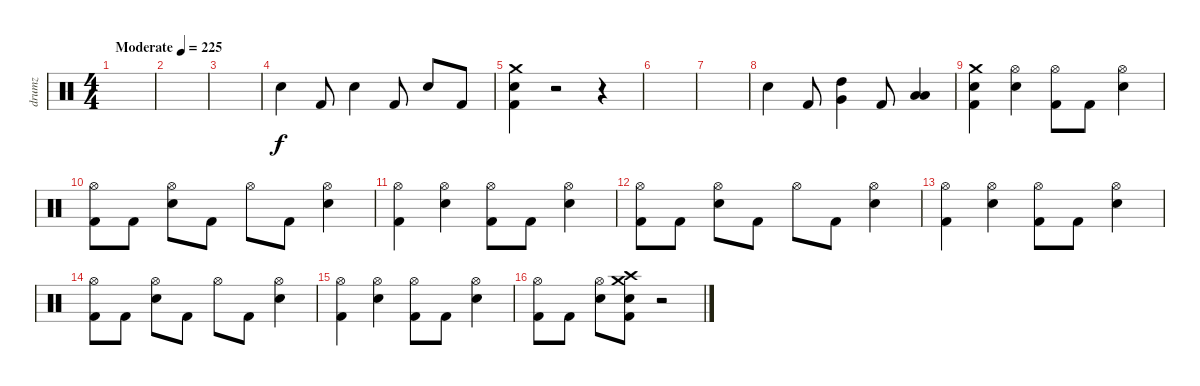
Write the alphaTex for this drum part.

\track ("drumz" "drumz") {instrument percussion}
\staff {score}
\articulation defaults
\ts (4 4)
\tempo (225 "Moderate")
\clef neutral
\ks c
|
|
|
"Electric Snare (hit)".4 "Kick (hit) 2".8 "Electric Snare (hit)".4 "Kick (hit) 2".8 "Electric Snare (hit)".8 "Kick (hit) 2".8 |
("Crash medium (hit)" "Electric Snare (hit)" "Kick (hit) 2").4 r.2 r.4 |
|
|
"Electric Snare (hit)".4 "Kick (hit) 2".8 ("High Tom (hit)" "Very Low Tom (hit)").4 "Kick (hit) 2".8 ("Low Tom (hit)" "Low Floor Tom (hit)").4 |
("Crash medium (hit)" "Electric Snare (hit)" "Kick (hit) 2").4 ("Hi-Hat (open)" "Electric Snare (hit)").4 ("Hi-Hat (open)" "Kick (hit) 2").8 "Kick (hit) 2".8 ("Hi-Hat (open)" "Electric Snare (hit)").4 |
("Hi-Hat (open)" "Kick (hit) 2").8 "Kick (hit) 2".8 ("Hi-Hat (open)" "Electric Snare (hit)").8 "Kick (hit) 2".8 "Hi-Hat (open)".8 "Kick (hit) 2".8 ("Hi-Hat (open)" "Electric Snare (hit)").4 |
("Hi-Hat (open)" "Kick (hit) 2").4 ("Hi-Hat (open)" "Electric Snare (hit)").4 ("Hi-Hat (open)" "Kick (hit) 2").8 "Kick (hit) 2".8 ("Hi-Hat (open)" "Electric Snare (hit)").4 |
("Hi-Hat (open)" "Kick (hit) 2").8 "Kick (hit) 2".8 ("Hi-Hat (open)" "Electric Snare (hit)").8 "Kick (hit) 2".8 "Hi-Hat (open)".8 "Kick (hit) 2".8 ("Hi-Hat (open)" "Electric Snare (hit)").4 |
("Hi-Hat (open)" "Kick (hit) 2").4 ("Hi-Hat (open)" "Electric Snare (hit)").4 ("Hi-Hat (open)" "Kick (hit) 2").8 "Kick (hit) 2".8 ("Hi-Hat (open)" "Electric Snare (hit)").4 |
("Hi-Hat (open)" "Kick (hit) 2").8 "Kick (hit) 2".8 ("Hi-Hat (open)" "Electric Snare (hit)").8 "Kick (hit) 2".8 "Hi-Hat (open)".8 "Kick (hit) 2".8 ("Hi-Hat (open)" "Electric Snare (hit)").4 |
("Hi-Hat (open)" "Kick (hit) 2").4 ("Hi-Hat (open)" "Electric Snare (hit)").4 ("Hi-Hat (open)" "Kick (hit) 2").8 "Kick (hit) 2".8 ("Hi-Hat (open)" "Electric Snare (hit)").4 |
("Hi-Hat (open)" "Kick (hit) 2").8 "Kick (hit) 2".8 ("Hi-Hat (open)" "Electric Snare (hit)").8 ("Crash medium (hit)" "Crash high (hit)" "Electric Snare (hit)" "Kick (hit) 2").8 r.2
